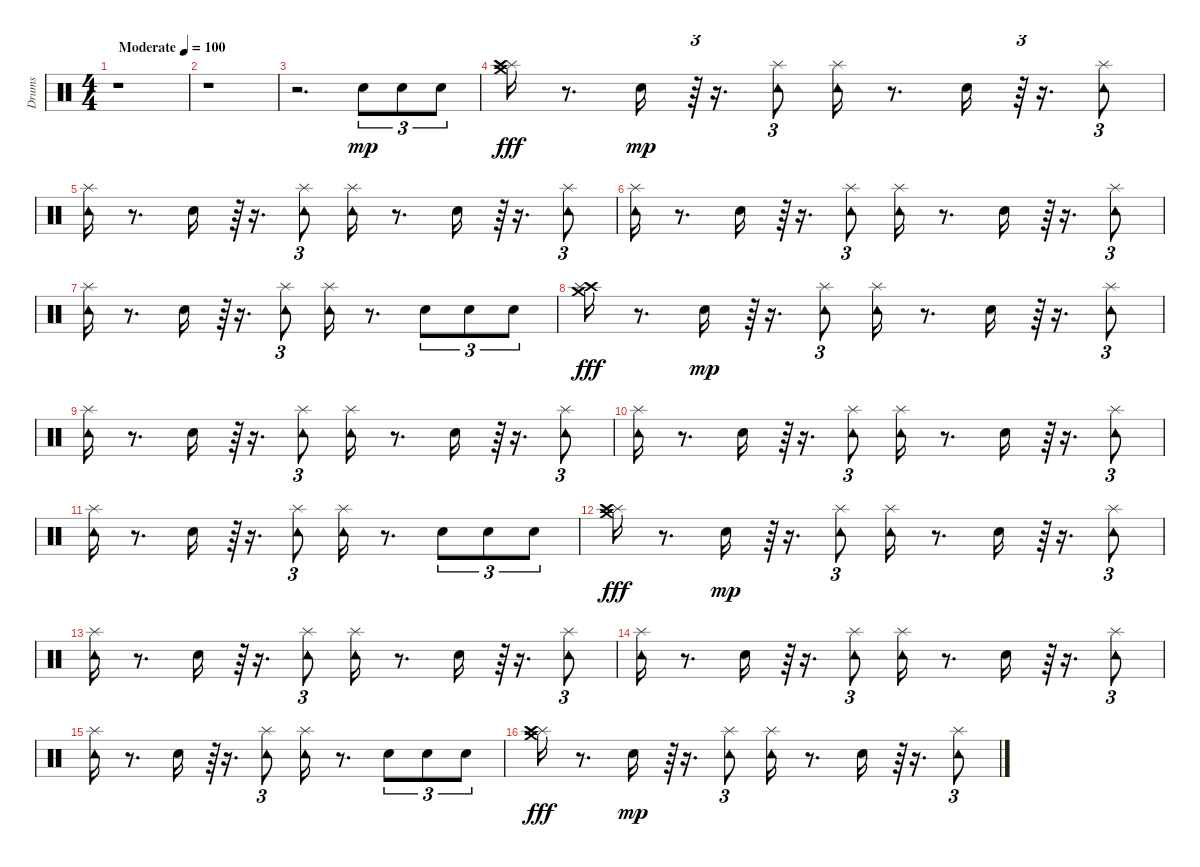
\track ("Drums" "Drums") {instrument percussion}
\staff {score}
\articulation defaults
\ts (4 4)
\tempo (100 "Moderate")
\clef neutral
\ks c
r.1{dy mp} |
r.1 |
r.2{d} "Snare (hit)".8{tu (3 2)} "Snare (hit)".8{tu (3 2)} "Snare (hit)".8{tu (3 2)} |
("Splash (hit)" "Crash high (hit)" "Crash medium (hit)").16{dy fff} r.8{d} "Snare (hit)".16{dy mp} r.64{tu (3 2)} r.16{d} ("Splash (hit)" "Tambourine (hit)").8{tu (3 2)} ("Splash (hit)" "Tambourine (hit)").16 r.8{d} "Snare (hit)".16 r.64{tu (3 2)} r.16{d} ("Splash (hit)" "Tambourine (hit)").8{tu (3 2)} |
("Tambourine (hit)" "Splash (hit)").16 r.8{d} "Snare (hit)".16 r.64{tu (3 2)} r.16{d} ("Tambourine (hit)" "Splash (hit)").8{tu (3 2)} ("Splash (hit)" "Tambourine (hit)").16 r.8{d} "Snare (hit)".16 r.64{tu (3 2)} r.16{d} ("Tambourine (hit)" "Splash (hit)").8{tu (3 2)} |
("Tambourine (hit)" "Splash (hit)").16 r.8{d} "Snare (hit)".16 r.64{tu (3 2)} r.16{d} ("Splash (hit)" "Tambourine (hit)").8{tu (3 2)} ("Tambourine (hit)" "Splash (hit)").16 r.8{d} "Snare (hit)".16 r.64{tu (3 2)} r.16{d} ("Tambourine (hit)" "Splash (hit)").8{tu (3 2)} |
("Splash (hit)" "Tambourine (hit)").16 r.8{d} "Snare (hit)".16 r.64{tu (3 2)} r.16{d} ("Splash (hit)" "Tambourine (hit)").8{tu (3 2)} ("Tambourine (hit)" "Splash (hit)").16 r.8{d} "Snare (hit)".8{tu (3 2)} "Snare (hit)".8{tu (3 2)} "Snare (hit)".8{tu (3 2)} |
("Crash high (hit)" "Splash (hit)" "Crash medium (hit)").16{dy fff} r.8{d} "Snare (hit)".16{dy mp} r.64{tu (3 2)} r.16{d} ("Splash (hit)" "Tambourine (hit)").8{tu (3 2)} ("Tambourine (hit)" "Splash (hit)").16 r.8{d} "Snare (hit)".16 r.64{tu (3 2)} r.16{d} ("Tambourine (hit)" "Splash (hit)").8{tu (3 2)} |
("Splash (hit)" "Tambourine (hit)").16 r.8{d} "Snare (hit)".16 r.64{tu (3 2)} r.16{d} ("Splash (hit)" "Tambourine (hit)").8{tu (3 2)} ("Tambourine (hit)" "Splash (hit)").16 r.8{d} "Snare (hit)".16 r.64{tu (3 2)} r.16{d} ("Splash (hit)" "Tambourine (hit)").8{tu (3 2)} |
("Tambourine (hit)" "Splash (hit)").16 r.8{d} "Snare (hit)".16 r.64{tu (3 2)} r.16{d} ("Splash (hit)" "Tambourine (hit)").8{tu (3 2)} ("Splash (hit)" "Tambourine (hit)").16 r.8{d} "Snare (hit)".16 r.64{tu (3 2)} r.16{d} ("Splash (hit)" "Tambourine (hit)").8{tu (3 2)} |
("Splash (hit)" "Tambourine (hit)").16 r.8{d} "Snare (hit)".16 r.64{tu (3 2)} r.16{d} ("Tambourine (hit)" "Splash (hit)").8{tu (3 2)} ("Tambourine (hit)" "Splash (hit)").16 r.8{d} "Snare (hit)".8{tu (3 2)} "Snare (hit)".8{tu (3 2)} "Snare (hit)".8{tu (3 2)} |
("Splash (hit)" "Crash high (hit)" "Crash medium (hit)").16{dy fff} r.8{d} "Snare (hit)".16{dy mp} r.64{tu (3 2)} r.16{d} ("Splash (hit)" "Tambourine (hit)").8{tu (3 2)} ("Splash (hit)" "Tambourine (hit)").16 r.8{d} "Snare (hit)".16 r.64{tu (3 2)} r.16{d} ("Splash (hit)" "Tambourine (hit)").8{tu (3 2)} |
("Splash (hit)" "Tambourine (hit)").16 r.8{d} "Snare (hit)".16 r.64{tu (3 2)} r.16{d} ("Splash (hit)" "Tambourine (hit)").8{tu (3 2)} ("Tambourine (hit)" "Splash (hit)").16 r.8{d} "Snare (hit)".16 r.64{tu (3 2)} r.16{d} ("Tambourine (hit)" "Splash (hit)").8{tu (3 2)} |
("Tambourine (hit)" "Splash (hit)").16 r.8{d} "Snare (hit)".16 r.64{tu (3 2)} r.16{d} ("Splash (hit)" "Tambourine (hit)").8{tu (3 2)} ("Tambourine (hit)" "Splash (hit)").16 r.8{d} "Snare (hit)".16 r.64{tu (3 2)} r.16{d} ("Tambourine (hit)" "Splash (hit)").8{tu (3 2)} |
("Splash (hit)" "Tambourine (hit)").16 r.8{d} "Snare (hit)".16 r.64{tu (3 2)} r.16{d} ("Tambourine (hit)" "Splash (hit)").8{tu (3 2)} ("Splash (hit)" "Tambourine (hit)").16 r.8{d} "Snare (hit)".8{tu (3 2)} "Snare (hit)".8{tu (3 2)} "Snare (hit)".8{tu (3 2)} |
("Splash (hit)" "Crash medium (hit)" "Crash high (hit)").16{dy fff} r.8{d} "Snare (hit)".16{dy mp} r.64{tu (3 2)} r.16{d} ("Tambourine (hit)" "Splash (hit)").8{tu (3 2)} ("Tambourine (hit)" "Splash (hit)").16 r.8{d} "Snare (hit)".16 r.64{tu (3 2)} r.16{d} ("Splash (hit)" "Tambourine (hit)").8{tu (3 2)}
